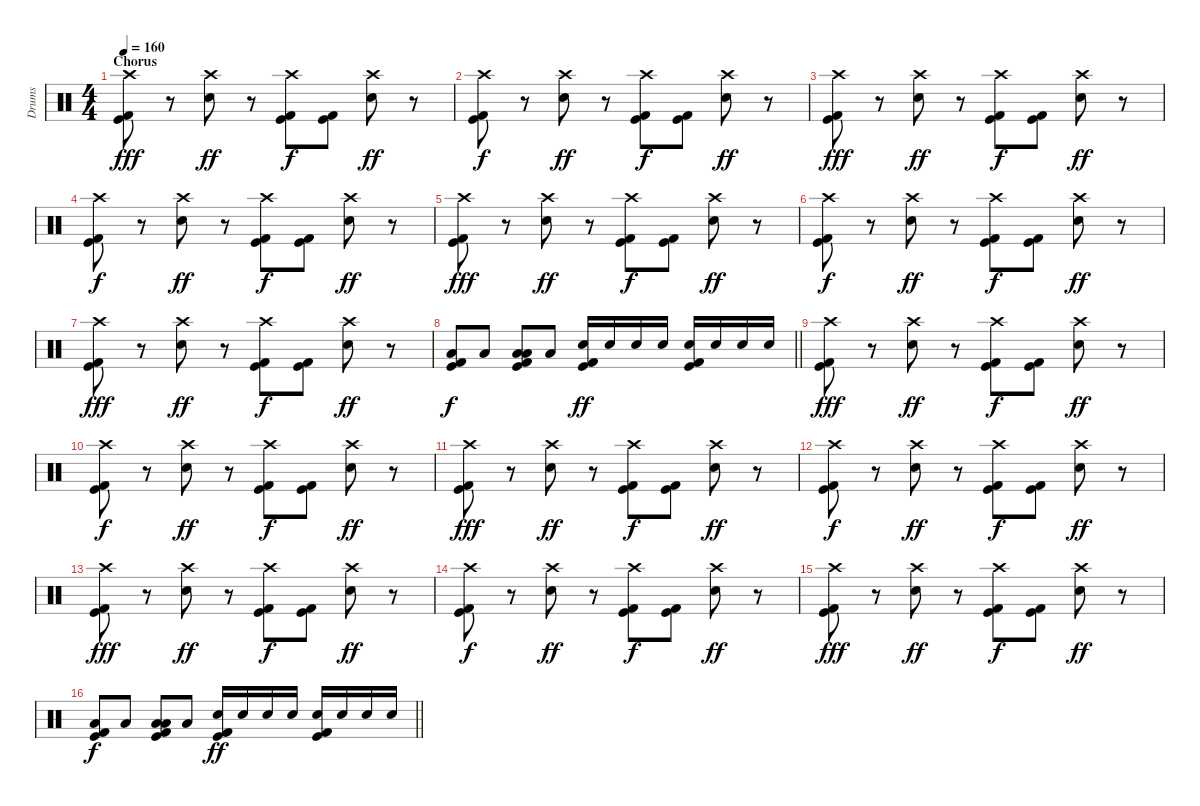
\track ("Drums" "Drums") {instrument percussion}
\staff {score}
\articulation defaults
\ts (4 4)
\section ("" "Chorus")
\tempo 160
\clef neutral
\ks c
("Crash high (hit)" "Kick (hit)" "Kick (hit) 2").8{dy fff} r.8 ("Crash high (hit)" "Snare (hit) 2").8{dy ff} r.8 ("Crash high (hit)" "Kick (hit)" "Kick (hit) 2").8{dy f} ("Kick (hit)" "Kick (hit) 2").8 ("Crash high (hit)" "Snare (hit) 2").8{dy ff} r.8 |
("Crash high (hit)" "Kick (hit)" "Kick (hit) 2").8{dy f} r.8 ("Crash high (hit)" "Snare (hit) 2").8{dy ff} r.8 ("Crash high (hit)" "Kick (hit)" "Kick (hit) 2").8{dy f} ("Kick (hit)" "Kick (hit) 2").8 ("Crash high (hit)" "Snare (hit) 2").8{dy ff} r.8 |
("Crash high (hit)" "Kick (hit)" "Kick (hit) 2").8{dy fff} r.8 ("Crash high (hit)" "Snare (hit) 2").8{dy ff} r.8 ("Crash high (hit)" "Kick (hit)" "Kick (hit) 2").8{dy f} ("Kick (hit)" "Kick (hit) 2").8 ("Crash high (hit)" "Snare (hit) 2").8{dy ff} r.8 |
("Crash high (hit)" "Kick (hit)" "Kick (hit) 2").8{dy f} r.8 ("Crash high (hit)" "Snare (hit) 2").8{dy ff} r.8 ("Crash high (hit)" "Kick (hit)" "Kick (hit) 2").8{dy f} ("Kick (hit)" "Kick (hit) 2").8 ("Crash high (hit)" "Snare (hit) 2").8{dy ff} r.8 |
("Crash high (hit)" "Kick (hit)" "Kick (hit) 2").8{dy fff} r.8 ("Crash high (hit)" "Snare (hit) 2").8{dy ff} r.8 ("Crash high (hit)" "Kick (hit)" "Kick (hit) 2").8{dy f} ("Kick (hit)" "Kick (hit) 2").8 ("Crash high (hit)" "Snare (hit) 2").8{dy ff} r.8 |
("Crash high (hit)" "Kick (hit)" "Kick (hit) 2").8{dy f} r.8 ("Crash high (hit)" "Snare (hit) 2").8{dy ff} r.8 ("Crash high (hit)" "Kick (hit)" "Kick (hit) 2").8{dy f} ("Kick (hit)" "Kick (hit) 2").8 ("Crash high (hit)" "Snare (hit) 2").8{dy ff} r.8 |
("Crash high (hit)" "Kick (hit)" "Kick (hit) 2").8{dy fff} r.8 ("Crash high (hit)" "Snare (hit) 2").8{dy ff} r.8 ("Crash high (hit)" "Kick (hit)" "Kick (hit) 2").8{dy f} ("Kick (hit)" "Kick (hit) 2").8 ("Crash high (hit)" "Snare (hit) 2").8{dy ff} r.8 |
\barLineRight lightlight
("Low Floor Tom (hit)" "Kick (hit)" "Kick (hit) 2").8{dy f} "Low Floor Tom (hit)".8 ("Low Tom (hit)" "Low Floor Tom (hit)" "Kick (hit)" "Kick (hit) 2").8 "Low Floor Tom (hit)".8 ("Snare (hit) 2" "Kick (hit)" "Kick (hit) 2").16{dy ff} "Snare (hit) 2".16 "Snare (hit) 2".16 "Snare (hit) 2".16 ("Snare (hit) 2" "Kick (hit)" "Kick (hit) 2").16 "Snare (hit) 2".16 "Snare (hit) 2".16 "Snare (hit) 2".16 |
("Crash high (hit)" "Kick (hit)" "Kick (hit) 2").8{dy fff} r.8 ("Crash high (hit)" "Snare (hit) 2").8{dy ff} r.8 ("Crash high (hit)" "Kick (hit)" "Kick (hit) 2").8{dy f} ("Kick (hit)" "Kick (hit) 2").8 ("Crash high (hit)" "Snare (hit) 2").8{dy ff} r.8 |
("Crash high (hit)" "Kick (hit)" "Kick (hit) 2").8{dy f} r.8 ("Crash high (hit)" "Snare (hit) 2").8{dy ff} r.8 ("Crash high (hit)" "Kick (hit)" "Kick (hit) 2").8{dy f} ("Kick (hit)" "Kick (hit) 2").8 ("Crash high (hit)" "Snare (hit) 2").8{dy ff} r.8 |
("Crash high (hit)" "Kick (hit)" "Kick (hit) 2").8{dy fff} r.8 ("Crash high (hit)" "Snare (hit) 2").8{dy ff} r.8 ("Crash high (hit)" "Kick (hit)" "Kick (hit) 2").8{dy f} ("Kick (hit)" "Kick (hit) 2").8 ("Crash high (hit)" "Snare (hit) 2").8{dy ff} r.8 |
("Crash high (hit)" "Kick (hit)" "Kick (hit) 2").8{dy f} r.8 ("Crash high (hit)" "Snare (hit) 2").8{dy ff} r.8 ("Crash high (hit)" "Kick (hit)" "Kick (hit) 2").8{dy f} ("Kick (hit)" "Kick (hit) 2").8 ("Crash high (hit)" "Snare (hit) 2").8{dy ff} r.8 |
("Crash high (hit)" "Kick (hit)" "Kick (hit) 2").8{dy fff} r.8 ("Crash high (hit)" "Snare (hit) 2").8{dy ff} r.8 ("Crash high (hit)" "Kick (hit)" "Kick (hit) 2").8{dy f} ("Kick (hit)" "Kick (hit) 2").8 ("Crash high (hit)" "Snare (hit) 2").8{dy ff} r.8 |
("Crash high (hit)" "Kick (hit)" "Kick (hit) 2").8{dy f} r.8 ("Crash high (hit)" "Snare (hit) 2").8{dy ff} r.8 ("Crash high (hit)" "Kick (hit)" "Kick (hit) 2").8{dy f} ("Kick (hit)" "Kick (hit) 2").8 ("Crash high (hit)" "Snare (hit) 2").8{dy ff} r.8 |
("Crash high (hit)" "Kick (hit)" "Kick (hit) 2").8{dy fff} r.8 ("Crash high (hit)" "Snare (hit) 2").8{dy ff} r.8 ("Crash high (hit)" "Kick (hit)" "Kick (hit) 2").8{dy f} ("Kick (hit)" "Kick (hit) 2").8 ("Crash high (hit)" "Snare (hit) 2").8{dy ff} r.8 |
\barLineRight lightlight
("Low Floor Tom (hit)" "Kick (hit)" "Kick (hit) 2").8{dy f} "Low Floor Tom (hit)".8 ("Low Tom (hit)" "Low Floor Tom (hit)" "Kick (hit)" "Kick (hit) 2").8 "Low Floor Tom (hit)".8 ("Snare (hit) 2" "Kick (hit)" "Kick (hit) 2").16{dy ff} "Snare (hit) 2".16 "Snare (hit) 2".16 "Snare (hit) 2".16 ("Snare (hit) 2" "Kick (hit)" "Kick (hit) 2").16 "Snare (hit) 2".16 "Snare (hit) 2".16 "Snare (hit) 2".16
